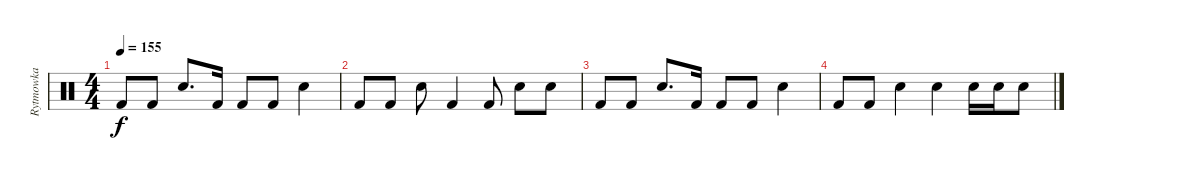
\track ("Rytmowka" "Rytmowka") {instrument percussion}
\staff {score}
\articulation defaults
\ts (4 4)
\tempo 155
\clef neutral
\ks c "Kick (hit) 2".8{dy f} "Kick (hit) 2".8 "Snare (hit) 2".8{d} "Kick (hit) 2".16 "Kick (hit) 2".8 "Kick (hit) 2".8 "Snare (hit) 2".4
|
"Kick (hit) 2".8 "Kick (hit) 2".8 "Snare (hit) 2".8 "Kick (hit) 2".4 "Kick (hit) 2".8 "Snare (hit) 2".8 "Snare (hit) 2".8 |
"Kick (hit) 2".8 "Kick (hit) 2".8 "Snare (hit) 2".8{d} "Kick (hit) 2".16 "Kick (hit) 2".8 "Kick (hit) 2".8 "Snare (hit) 2".4 |
"Kick (hit) 2".8 "Kick (hit) 2".8 "Snare (hit) 2".4 "Snare (hit) 2".4 "Snare (hit) 2".16 "Snare (hit) 2".16 "Snare (hit) 2".8
